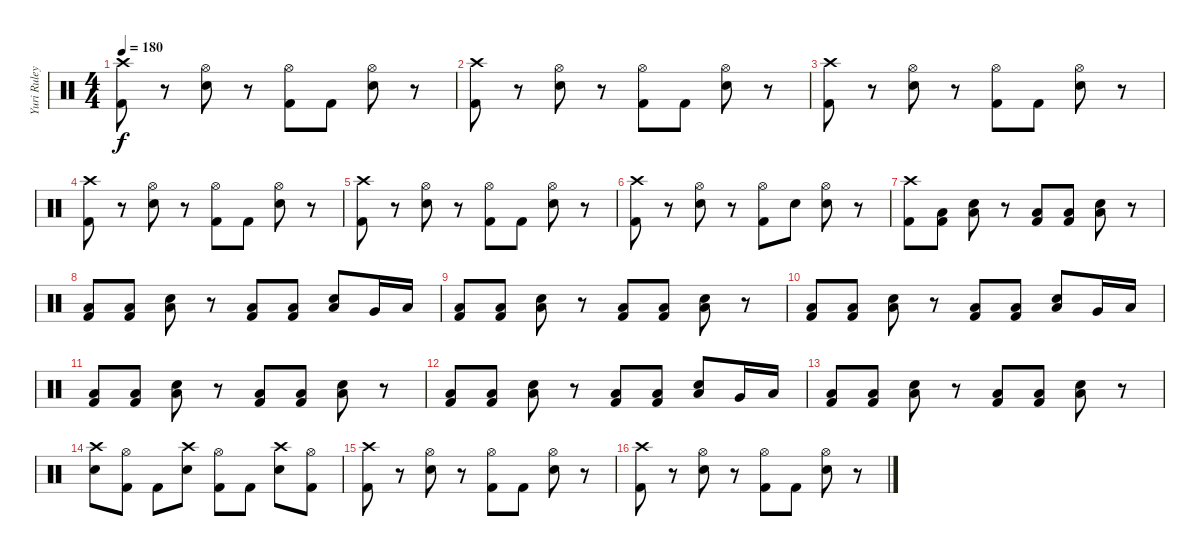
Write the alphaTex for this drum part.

\track ("Yuri Ruley [Drums]" "Yuri Ruley") {instrument percussion}
\staff {score}
\articulation defaults
\ts (4 4)
\tempo 180
\clef neutral
\ks c
("Crash high (hit)" "Kick (hit) 2").8{dy f} r.8 ("Hi-Hat (open)" "Snare (hit) 2").8 r.8 ("Hi-Hat (open)" "Kick (hit) 2").8 "Kick (hit) 2".8 ("Hi-Hat (open)" "Snare (hit) 2").8 r.8 |
("Crash high (hit)" "Kick (hit) 2").8 r.8 ("Hi-Hat (open)" "Snare (hit) 2").8 r.8 ("Hi-Hat (open)" "Kick (hit) 2").8 "Kick (hit) 2".8 ("Hi-Hat (open)" "Snare (hit) 2").8 r.8 |
("Crash high (hit)" "Kick (hit) 2").8 r.8 ("Hi-Hat (open)" "Snare (hit) 2").8 r.8 ("Hi-Hat (open)" "Kick (hit) 2").8 "Kick (hit) 2".8 ("Hi-Hat (open)" "Snare (hit) 2").8 r.8 |
("Crash high (hit)" "Kick (hit) 2").8 r.8 ("Hi-Hat (open)" "Snare (hit) 2").8 r.8 ("Hi-Hat (open)" "Kick (hit) 2").8 "Kick (hit) 2".8 ("Hi-Hat (open)" "Snare (hit) 2").8 r.8 |
("Crash high (hit)" "Kick (hit) 2").8 r.8 ("Hi-Hat (open)" "Snare (hit) 2").8 r.8 ("Hi-Hat (open)" "Kick (hit) 2").8 "Kick (hit) 2".8 ("Hi-Hat (open)" "Snare (hit) 2").8 r.8 |
("Crash high (hit)" "Kick (hit) 2").8 r.8 ("Hi-Hat (open)" "Snare (hit) 2").8 r.8 ("Hi-Hat (open)" "Kick (hit) 2").8 "Snare (hit) 2".8 ("Hi-Hat (open)" "Snare (hit) 2").8 r.8 |
("Crash high (hit)" "Kick (hit) 2").8 ("Low Floor Tom (hit)" "Kick (hit) 2").8 ("Low Floor Tom (hit)" "Snare (hit) 2").8 r.8 ("Low Floor Tom (hit)" "Kick (hit) 2").8 ("Low Floor Tom (hit)" "Kick (hit) 2").8 ("Low Floor Tom (hit)" "Snare (hit) 2").8 r.8 |
("Low Floor Tom (hit)" "Kick (hit) 2").8 ("Low Floor Tom (hit)" "Kick (hit) 2").8 ("Low Floor Tom (hit)" "Snare (hit) 2").8 r.8 ("Low Floor Tom (hit)" "Kick (hit) 2").8 ("Low Floor Tom (hit)" "Kick (hit) 2").8 ("Low Floor Tom (hit)" "Snare (hit) 2").8 "Very Low Tom (hit)".16 "Low Tom (hit)".16 |
("Low Floor Tom (hit)" "Kick (hit) 2").8 ("Low Floor Tom (hit)" "Kick (hit) 2").8 ("Low Floor Tom (hit)" "Snare (hit) 2").8 r.8 ("Low Floor Tom (hit)" "Kick (hit) 2").8 ("Low Floor Tom (hit)" "Kick (hit) 2").8 ("Low Floor Tom (hit)" "Snare (hit) 2").8 r.8 |
("Low Floor Tom (hit)" "Kick (hit) 2").8 ("Low Floor Tom (hit)" "Kick (hit) 2").8 ("Low Floor Tom (hit)" "Snare (hit) 2").8 r.8 ("Low Floor Tom (hit)" "Kick (hit) 2").8 ("Low Floor Tom (hit)" "Kick (hit) 2").8 ("Low Floor Tom (hit)" "Snare (hit) 2").8 "Very Low Tom (hit)".16 "Low Tom (hit)".16 |
("Low Floor Tom (hit)" "Kick (hit) 2").8 ("Low Floor Tom (hit)" "Kick (hit) 2").8 ("Low Floor Tom (hit)" "Snare (hit) 2").8 r.8 ("Low Floor Tom (hit)" "Kick (hit) 2").8 ("Low Floor Tom (hit)" "Kick (hit) 2").8 ("Low Floor Tom (hit)" "Snare (hit) 2").8 r.8 |
("Low Floor Tom (hit)" "Kick (hit) 2").8 ("Low Floor Tom (hit)" "Kick (hit) 2").8 ("Low Floor Tom (hit)" "Snare (hit) 2").8 r.8 ("Low Floor Tom (hit)" "Kick (hit) 2").8 ("Low Floor Tom (hit)" "Kick (hit) 2").8 ("Low Floor Tom (hit)" "Snare (hit) 2").8 "Very Low Tom (hit)".16 "Low Tom (hit)".16 |
("Low Floor Tom (hit)" "Kick (hit) 2").8 ("Low Floor Tom (hit)" "Kick (hit) 2").8 ("Low Floor Tom (hit)" "Snare (hit) 2").8 r.8 ("Low Floor Tom (hit)" "Kick (hit) 2").8 ("Low Floor Tom (hit)" "Kick (hit) 2").8 ("Low Floor Tom (hit)" "Snare (hit) 2").8 r.8 |
("Crash high (hit)" "Snare (hit) 2").8 ("Hi-Hat (open)" "Kick (hit) 2").8 "Kick (hit) 2".8 ("Crash high (hit)" "Snare (hit) 2").8 ("Hi-Hat (open)" "Kick (hit) 2").8 "Kick (hit) 2".8 ("Crash high (hit)" "Snare (hit) 2").8 ("Hi-Hat (open)" "Kick (hit) 2").8 |
("Crash high (hit)" "Kick (hit) 2").8 r.8 ("Hi-Hat (open)" "Snare (hit) 2").8 r.8 ("Hi-Hat (open)" "Kick (hit) 2").8 "Kick (hit) 2".8 ("Hi-Hat (open)" "Snare (hit) 2").8 r.8 |
("Crash high (hit)" "Kick (hit) 2").8 r.8 ("Hi-Hat (open)" "Snare (hit) 2").8 r.8 ("Hi-Hat (open)" "Kick (hit) 2").8 "Kick (hit) 2".8 ("Hi-Hat (open)" "Snare (hit) 2").8 r.8
